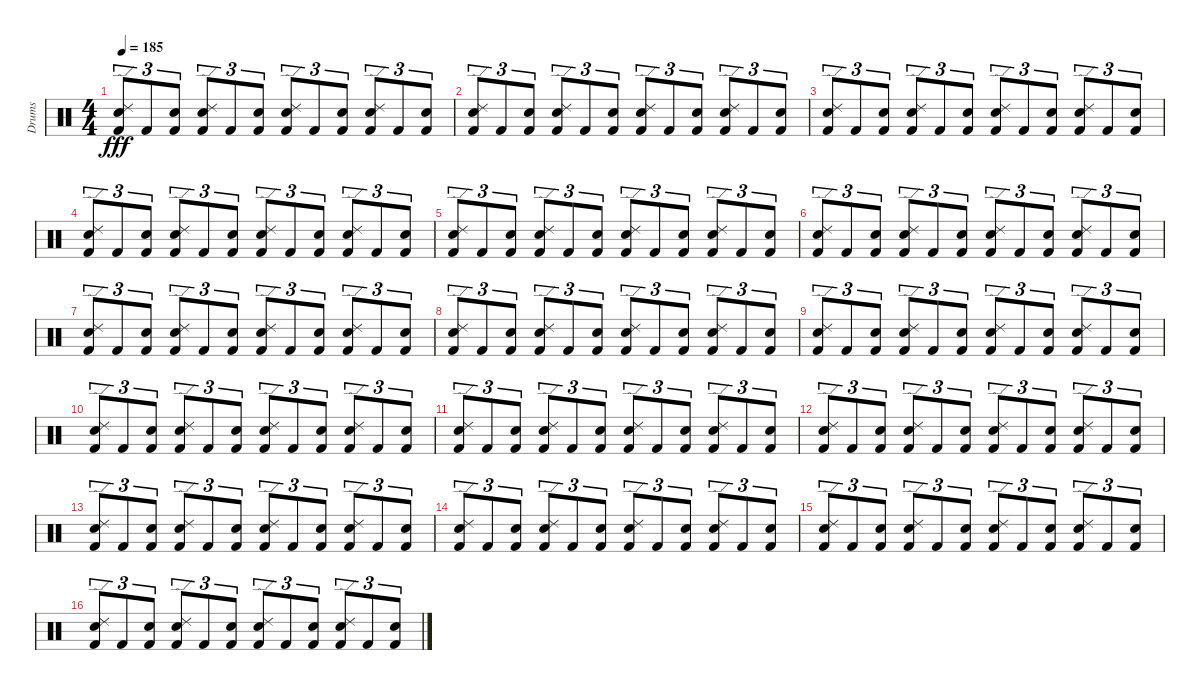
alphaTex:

\track ("Drums" "Drums") {instrument percussion}
\staff {score}
\articulation defaults
\ts (4 4)
\tempo 185
\clef neutral
\ks c
("Ride (edge) 2" "Electric Snare (hit)" "Kick (hit) 2").8{tu (3 2) dy fff} "Kick (hit) 2".8{tu (3 2)} ("Snare (hit) 2" "Kick (hit) 2").8{tu (3 2)} ("Ride (edge) 2" "Electric Snare (hit)" "Kick (hit) 2").8{tu (3 2)} "Kick (hit) 2".8{tu (3 2)} ("Snare (hit) 2" "Kick (hit) 2").8{tu (3 2)} ("Ride (edge) 2" "Electric Snare (hit)" "Kick (hit) 2").8{tu (3 2)} "Kick (hit) 2".8{tu (3 2)} ("Snare (hit) 2" "Kick (hit) 2").8{tu (3 2)} ("Ride (edge) 2" "Electric Snare (hit)" "Kick (hit) 2").8{tu (3 2)} "Kick (hit) 2".8{tu (3 2)} ("Snare (hit) 2" "Kick (hit) 2").8{tu (3 2)} |
("Ride (edge) 2" "Electric Snare (hit)" "Kick (hit) 2").8{tu (3 2)} "Kick (hit) 2".8{tu (3 2)} ("Snare (hit) 2" "Kick (hit) 2").8{tu (3 2)} ("Ride (edge) 2" "Electric Snare (hit)" "Kick (hit) 2").8{tu (3 2)} "Kick (hit) 2".8{tu (3 2)} ("Snare (hit) 2" "Kick (hit) 2").8{tu (3 2)} ("Ride (edge) 2" "Electric Snare (hit)" "Kick (hit) 2").8{tu (3 2)} "Kick (hit) 2".8{tu (3 2)} ("Snare (hit) 2" "Kick (hit) 2").8{tu (3 2)} ("Ride (edge) 2" "Electric Snare (hit)" "Kick (hit) 2").8{tu (3 2)} "Kick (hit) 2".8{tu (3 2)} ("Snare (hit) 2" "Kick (hit) 2").8{tu (3 2)} |
("Ride (edge) 2" "Electric Snare (hit)" "Kick (hit) 2").8{tu (3 2)} "Kick (hit) 2".8{tu (3 2)} ("Snare (hit) 2" "Kick (hit) 2").8{tu (3 2)} ("Ride (edge) 2" "Electric Snare (hit)" "Kick (hit) 2").8{tu (3 2)} "Kick (hit) 2".8{tu (3 2)} ("Snare (hit) 2" "Kick (hit) 2").8{tu (3 2)} ("Ride (edge) 2" "Electric Snare (hit)" "Kick (hit) 2").8{tu (3 2)} "Kick (hit) 2".8{tu (3 2)} ("Snare (hit) 2" "Kick (hit) 2").8{tu (3 2)} ("Ride (edge) 2" "Electric Snare (hit)" "Kick (hit) 2").8{tu (3 2)} "Kick (hit) 2".8{tu (3 2)} ("Snare (hit) 2" "Kick (hit) 2").8{tu (3 2)} |
("Ride (edge) 2" "Electric Snare (hit)" "Kick (hit) 2").8{tu (3 2)} "Kick (hit) 2".8{tu (3 2)} ("Snare (hit) 2" "Kick (hit) 2").8{tu (3 2)} ("Ride (edge) 2" "Electric Snare (hit)" "Kick (hit) 2").8{tu (3 2)} "Kick (hit) 2".8{tu (3 2)} ("Snare (hit) 2" "Kick (hit) 2").8{tu (3 2)} ("Ride (edge) 2" "Electric Snare (hit)" "Kick (hit) 2").8{tu (3 2)} "Kick (hit) 2".8{tu (3 2)} ("Snare (hit) 2" "Kick (hit) 2").8{tu (3 2)} ("Ride (edge) 2" "Electric Snare (hit)" "Kick (hit) 2").8{tu (3 2)} "Kick (hit) 2".8{tu (3 2)} ("Snare (hit) 2" "Kick (hit) 2").8{tu (3 2)} |
("Ride (edge) 2" "Electric Snare (hit)" "Kick (hit) 2").8{tu (3 2)} "Kick (hit) 2".8{tu (3 2)} ("Snare (hit) 2" "Kick (hit) 2").8{tu (3 2)} ("Ride (edge) 2" "Electric Snare (hit)" "Kick (hit) 2").8{tu (3 2)} "Kick (hit) 2".8{tu (3 2)} ("Snare (hit) 2" "Kick (hit) 2").8{tu (3 2)} ("Ride (edge) 2" "Electric Snare (hit)" "Kick (hit) 2").8{tu (3 2)} "Kick (hit) 2".8{tu (3 2)} ("Snare (hit) 2" "Kick (hit) 2").8{tu (3 2)} ("Ride (edge) 2" "Electric Snare (hit)" "Kick (hit) 2").8{tu (3 2)} "Kick (hit) 2".8{tu (3 2)} ("Snare (hit) 2" "Kick (hit) 2").8{tu (3 2)} |
("Ride (edge) 2" "Electric Snare (hit)" "Kick (hit) 2").8{tu (3 2)} "Kick (hit) 2".8{tu (3 2)} ("Snare (hit) 2" "Kick (hit) 2").8{tu (3 2)} ("Ride (edge) 2" "Electric Snare (hit)" "Kick (hit) 2").8{tu (3 2)} "Kick (hit) 2".8{tu (3 2)} ("Snare (hit) 2" "Kick (hit) 2").8{tu (3 2)} ("Ride (edge) 2" "Electric Snare (hit)" "Kick (hit) 2").8{tu (3 2)} "Kick (hit) 2".8{tu (3 2)} ("Snare (hit) 2" "Kick (hit) 2").8{tu (3 2)} ("Ride (edge) 2" "Electric Snare (hit)" "Kick (hit) 2").8{tu (3 2)} "Kick (hit) 2".8{tu (3 2)} ("Snare (hit) 2" "Kick (hit) 2").8{tu (3 2)} |
("Ride (edge) 2" "Electric Snare (hit)" "Kick (hit) 2").8{tu (3 2)} "Kick (hit) 2".8{tu (3 2)} ("Snare (hit) 2" "Kick (hit) 2").8{tu (3 2)} ("Ride (edge) 2" "Electric Snare (hit)" "Kick (hit) 2").8{tu (3 2)} "Kick (hit) 2".8{tu (3 2)} ("Snare (hit) 2" "Kick (hit) 2").8{tu (3 2)} ("Ride (edge) 2" "Electric Snare (hit)" "Kick (hit) 2").8{tu (3 2)} "Kick (hit) 2".8{tu (3 2)} ("Snare (hit) 2" "Kick (hit) 2").8{tu (3 2)} ("Ride (edge) 2" "Electric Snare (hit)" "Kick (hit) 2").8{tu (3 2)} "Kick (hit) 2".8{tu (3 2)} ("Snare (hit) 2" "Kick (hit) 2").8{tu (3 2)} |
("Ride (edge) 2" "Electric Snare (hit)" "Kick (hit) 2").8{tu (3 2)} "Kick (hit) 2".8{tu (3 2)} ("Snare (hit) 2" "Kick (hit) 2").8{tu (3 2)} ("Ride (edge) 2" "Electric Snare (hit)" "Kick (hit) 2").8{tu (3 2)} "Kick (hit) 2".8{tu (3 2)} ("Snare (hit) 2" "Kick (hit) 2").8{tu (3 2)} ("Ride (edge) 2" "Electric Snare (hit)" "Kick (hit) 2").8{tu (3 2)} "Kick (hit) 2".8{tu (3 2)} ("Snare (hit) 2" "Kick (hit) 2").8{tu (3 2)} ("Ride (edge) 2" "Electric Snare (hit)" "Kick (hit) 2").8{tu (3 2)} "Kick (hit) 2".8{tu (3 2)} ("Snare (hit) 2" "Kick (hit) 2").8{tu (3 2)} |
("Ride (edge) 2" "Electric Snare (hit)" "Kick (hit) 2").8{tu (3 2)} "Kick (hit) 2".8{tu (3 2)} ("Snare (hit) 2" "Kick (hit) 2").8{tu (3 2)} ("Ride (edge) 2" "Electric Snare (hit)" "Kick (hit) 2").8{tu (3 2)} "Kick (hit) 2".8{tu (3 2)} ("Snare (hit) 2" "Kick (hit) 2").8{tu (3 2)} ("Ride (edge) 2" "Electric Snare (hit)" "Kick (hit) 2").8{tu (3 2)} "Kick (hit) 2".8{tu (3 2)} ("Snare (hit) 2" "Kick (hit) 2").8{tu (3 2)} ("Ride (edge) 2" "Electric Snare (hit)" "Kick (hit) 2").8{tu (3 2)} "Kick (hit) 2".8{tu (3 2)} ("Snare (hit) 2" "Kick (hit) 2").8{tu (3 2)} |
("Ride (edge) 2" "Electric Snare (hit)" "Kick (hit) 2").8{tu (3 2)} "Kick (hit) 2".8{tu (3 2)} ("Snare (hit) 2" "Kick (hit) 2").8{tu (3 2)} ("Ride (edge) 2" "Electric Snare (hit)" "Kick (hit) 2").8{tu (3 2)} "Kick (hit) 2".8{tu (3 2)} ("Snare (hit) 2" "Kick (hit) 2").8{tu (3 2)} ("Ride (edge) 2" "Electric Snare (hit)" "Kick (hit) 2").8{tu (3 2)} "Kick (hit) 2".8{tu (3 2)} ("Snare (hit) 2" "Kick (hit) 2").8{tu (3 2)} ("Ride (edge) 2" "Electric Snare (hit)" "Kick (hit) 2").8{tu (3 2)} "Kick (hit) 2".8{tu (3 2)} ("Snare (hit) 2" "Kick (hit) 2").8{tu (3 2)} |
("Ride (edge) 2" "Electric Snare (hit)" "Kick (hit) 2").8{tu (3 2)} "Kick (hit) 2".8{tu (3 2)} ("Snare (hit) 2" "Kick (hit) 2").8{tu (3 2)} ("Ride (edge) 2" "Electric Snare (hit)" "Kick (hit) 2").8{tu (3 2)} "Kick (hit) 2".8{tu (3 2)} ("Snare (hit) 2" "Kick (hit) 2").8{tu (3 2)} ("Ride (edge) 2" "Electric Snare (hit)" "Kick (hit) 2").8{tu (3 2)} "Kick (hit) 2".8{tu (3 2)} ("Snare (hit) 2" "Kick (hit) 2").8{tu (3 2)} ("Ride (edge) 2" "Electric Snare (hit)" "Kick (hit) 2").8{tu (3 2)} "Kick (hit) 2".8{tu (3 2)} ("Snare (hit) 2" "Kick (hit) 2").8{tu (3 2)} |
("Ride (edge) 2" "Electric Snare (hit)" "Kick (hit) 2").8{tu (3 2)} "Kick (hit) 2".8{tu (3 2)} ("Snare (hit) 2" "Kick (hit) 2").8{tu (3 2)} ("Ride (edge) 2" "Electric Snare (hit)" "Kick (hit) 2").8{tu (3 2)} "Kick (hit) 2".8{tu (3 2)} ("Snare (hit) 2" "Kick (hit) 2").8{tu (3 2)} ("Ride (edge) 2" "Electric Snare (hit)" "Kick (hit) 2").8{tu (3 2)} "Kick (hit) 2".8{tu (3 2)} ("Snare (hit) 2" "Kick (hit) 2").8{tu (3 2)} ("Ride (edge) 2" "Electric Snare (hit)" "Kick (hit) 2").8{tu (3 2)} "Kick (hit) 2".8{tu (3 2)} ("Snare (hit) 2" "Kick (hit) 2").8{tu (3 2)} |
("Ride (edge) 2" "Electric Snare (hit)" "Kick (hit) 2").8{tu (3 2)} "Kick (hit) 2".8{tu (3 2)} ("Snare (hit) 2" "Kick (hit) 2").8{tu (3 2)} ("Ride (edge) 2" "Electric Snare (hit)" "Kick (hit) 2").8{tu (3 2)} "Kick (hit) 2".8{tu (3 2)} ("Snare (hit) 2" "Kick (hit) 2").8{tu (3 2)} ("Ride (edge) 2" "Electric Snare (hit)" "Kick (hit) 2").8{tu (3 2)} "Kick (hit) 2".8{tu (3 2)} ("Snare (hit) 2" "Kick (hit) 2").8{tu (3 2)} ("Ride (edge) 2" "Electric Snare (hit)" "Kick (hit) 2").8{tu (3 2)} "Kick (hit) 2".8{tu (3 2)} ("Snare (hit) 2" "Kick (hit) 2").8{tu (3 2)} |
("Ride (edge) 2" "Electric Snare (hit)" "Kick (hit) 2").8{tu (3 2)} "Kick (hit) 2".8{tu (3 2)} ("Snare (hit) 2" "Kick (hit) 2").8{tu (3 2)} ("Ride (edge) 2" "Electric Snare (hit)" "Kick (hit) 2").8{tu (3 2)} "Kick (hit) 2".8{tu (3 2)} ("Snare (hit) 2" "Kick (hit) 2").8{tu (3 2)} ("Ride (edge) 2" "Electric Snare (hit)" "Kick (hit) 2").8{tu (3 2)} "Kick (hit) 2".8{tu (3 2)} ("Snare (hit) 2" "Kick (hit) 2").8{tu (3 2)} ("Ride (edge) 2" "Electric Snare (hit)" "Kick (hit) 2").8{tu (3 2)} "Kick (hit) 2".8{tu (3 2)} ("Snare (hit) 2" "Kick (hit) 2").8{tu (3 2)} |
("Ride (edge) 2" "Electric Snare (hit)" "Kick (hit) 2").8{tu (3 2)} "Kick (hit) 2".8{tu (3 2)} ("Snare (hit) 2" "Kick (hit) 2").8{tu (3 2)} ("Ride (edge) 2" "Electric Snare (hit)" "Kick (hit) 2").8{tu (3 2)} "Kick (hit) 2".8{tu (3 2)} ("Snare (hit) 2" "Kick (hit) 2").8{tu (3 2)} ("Ride (edge) 2" "Electric Snare (hit)" "Kick (hit) 2").8{tu (3 2)} "Kick (hit) 2".8{tu (3 2)} ("Snare (hit) 2" "Kick (hit) 2").8{tu (3 2)} ("Ride (edge) 2" "Electric Snare (hit)" "Kick (hit) 2").8{tu (3 2)} "Kick (hit) 2".8{tu (3 2)} ("Snare (hit) 2" "Kick (hit) 2").8{tu (3 2)} |
("Ride (edge) 2" "Electric Snare (hit)" "Kick (hit) 2").8{tu (3 2)} "Kick (hit) 2".8{tu (3 2)} ("Snare (hit) 2" "Kick (hit) 2").8{tu (3 2)} ("Ride (edge) 2" "Electric Snare (hit)" "Kick (hit) 2").8{tu (3 2)} "Kick (hit) 2".8{tu (3 2)} ("Snare (hit) 2" "Kick (hit) 2").8{tu (3 2)} ("Ride (edge) 2" "Electric Snare (hit)" "Kick (hit) 2").8{tu (3 2)} "Kick (hit) 2".8{tu (3 2)} ("Snare (hit) 2" "Kick (hit) 2").8{tu (3 2)} ("Ride (edge) 2" "Electric Snare (hit)" "Kick (hit) 2").8{tu (3 2)} "Kick (hit) 2".8{tu (3 2)} ("Snare (hit) 2" "Kick (hit) 2").8{tu (3 2)}
